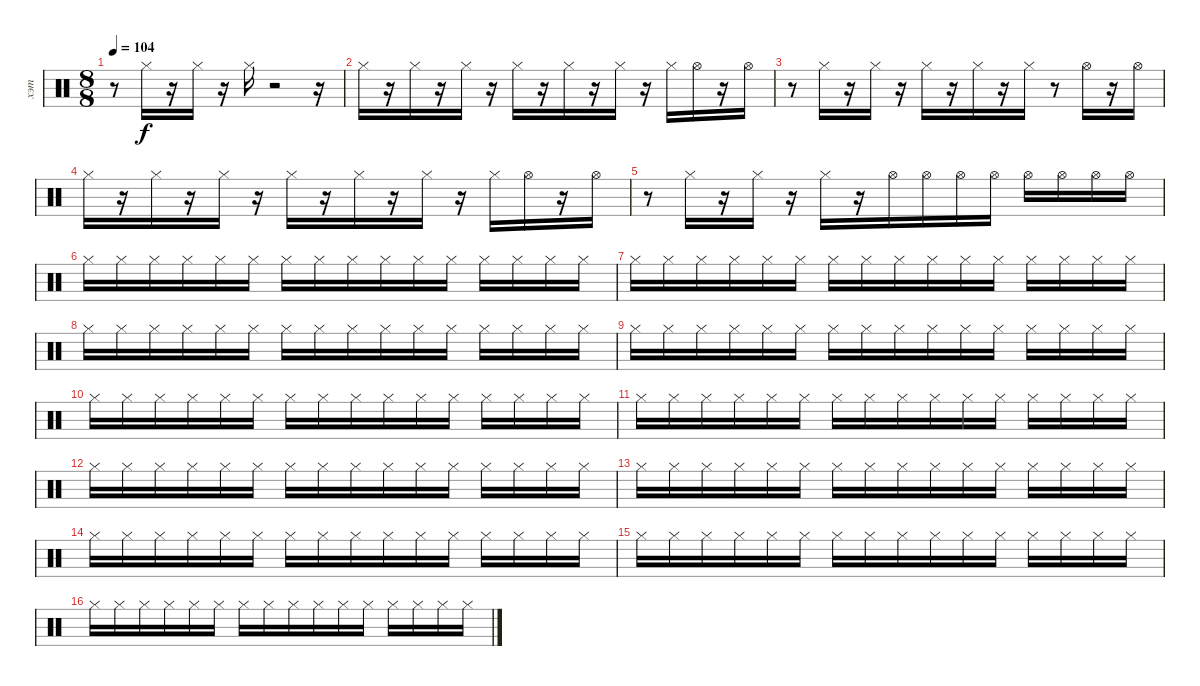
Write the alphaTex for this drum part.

\track ("хэт" "хэт") {instrument percussion}
\staff {score}
\articulation defaults
\ts (8 8)
\tempo 104
\clef neutral
\ks c
r.8{dy f} "Hi-Hat (closed)".16 r.16 "Hi-Hat (closed)".16 r.16 "Hi-Hat (closed)".16 r.2 r.16 |
"Hi-Hat (closed)".16 r.16 "Hi-Hat (closed)".16 r.16 "Hi-Hat (closed)".16 r.16 "Hi-Hat (closed)".16 r.16 "Hi-Hat (closed)".16 r.16 "Hi-Hat (closed)".16 r.16 "Hi-Hat (closed)".16 "Hi-Hat (open)".16 r.16 "Hi-Hat (open)".16 |
r.8 "Hi-Hat (closed)".16 r.16 "Hi-Hat (closed)".16 r.16 "Hi-Hat (closed)".16 r.16 "Hi-Hat (closed)".16 r.16 "Hi-Hat (closed)".16 r.8 "Hi-Hat (open)".16 r.16 "Hi-Hat (open)".16 |
"Hi-Hat (closed)".16 r.16 "Hi-Hat (closed)".16 r.16 "Hi-Hat (closed)".16 r.16 "Hi-Hat (closed)".16 r.16 "Hi-Hat (closed)".16 r.16 "Hi-Hat (closed)".16 r.16 "Hi-Hat (closed)".16 "Hi-Hat (open)".16 r.16 "Hi-Hat (open)".16 |
r.8 "Hi-Hat (closed)".16 r.16 "Hi-Hat (closed)".16 r.16 "Hi-Hat (closed)".16 r.16 "Hi-Hat (open)".16 "Hi-Hat (open)".16 "Hi-Hat (open)".16 "Hi-Hat (open)".16 "Hi-Hat (open)".16 "Hi-Hat (open)".16 "Hi-Hat (open)".16 "Hi-Hat (open)".16 |
"Hi-Hat (closed)".16 "Hi-Hat (closed)".16 "Hi-Hat (closed)".16 "Hi-Hat (closed)".16 "Hi-Hat (closed)".16 "Hi-Hat (closed)".16 "Hi-Hat (closed)".16 "Hi-Hat (closed)".16 "Hi-Hat (closed)".16 "Hi-Hat (closed)".16 "Hi-Hat (closed)".16 "Hi-Hat (closed)".16 "Hi-Hat (closed)".16 "Hi-Hat (closed)".16 "Hi-Hat (closed)".16 "Hi-Hat (closed)".16 |
"Hi-Hat (closed)".16 "Hi-Hat (closed)".16 "Hi-Hat (closed)".16 "Hi-Hat (closed)".16 "Hi-Hat (closed)".16 "Hi-Hat (closed)".16 "Hi-Hat (closed)".16 "Hi-Hat (closed)".16 "Hi-Hat (closed)".16 "Hi-Hat (closed)".16 "Hi-Hat (closed)".16 "Hi-Hat (closed)".16 "Hi-Hat (closed)".16 "Hi-Hat (closed)".16 "Hi-Hat (closed)".16 "Hi-Hat (closed)".16 |
"Hi-Hat (closed)".16 "Hi-Hat (closed)".16 "Hi-Hat (closed)".16 "Hi-Hat (closed)".16 "Hi-Hat (closed)".16 "Hi-Hat (closed)".16 "Hi-Hat (closed)".16 "Hi-Hat (closed)".16 "Hi-Hat (closed)".16 "Hi-Hat (closed)".16 "Hi-Hat (closed)".16 "Hi-Hat (closed)".16 "Hi-Hat (closed)".16 "Hi-Hat (closed)".16 "Hi-Hat (closed)".16 "Hi-Hat (closed)".16 |
"Hi-Hat (closed)".16 "Hi-Hat (closed)".16 "Hi-Hat (closed)".16 "Hi-Hat (closed)".16 "Hi-Hat (closed)".16 "Hi-Hat (closed)".16 "Hi-Hat (closed)".16 "Hi-Hat (closed)".16 "Hi-Hat (closed)".16 "Hi-Hat (closed)".16 "Hi-Hat (closed)".16 "Hi-Hat (closed)".16 "Hi-Hat (closed)".16 "Hi-Hat (closed)".16 "Hi-Hat (closed)".16 "Hi-Hat (closed)".16 |
"Hi-Hat (closed)".16 "Hi-Hat (closed)".16 "Hi-Hat (closed)".16 "Hi-Hat (closed)".16 "Hi-Hat (closed)".16 "Hi-Hat (closed)".16 "Hi-Hat (closed)".16 "Hi-Hat (closed)".16 "Hi-Hat (closed)".16 "Hi-Hat (closed)".16 "Hi-Hat (closed)".16 "Hi-Hat (closed)".16 "Hi-Hat (closed)".16 "Hi-Hat (closed)".16 "Hi-Hat (closed)".16 "Hi-Hat (closed)".16 |
"Hi-Hat (closed)".16 "Hi-Hat (closed)".16 "Hi-Hat (closed)".16 "Hi-Hat (closed)".16 "Hi-Hat (closed)".16 "Hi-Hat (closed)".16 "Hi-Hat (closed)".16 "Hi-Hat (closed)".16 "Hi-Hat (closed)".16 "Hi-Hat (closed)".16 "Hi-Hat (closed)".16 "Hi-Hat (closed)".16 "Hi-Hat (closed)".16 "Hi-Hat (closed)".16 "Hi-Hat (closed)".16 "Hi-Hat (closed)".16 |
"Hi-Hat (closed)".16 "Hi-Hat (closed)".16 "Hi-Hat (closed)".16 "Hi-Hat (closed)".16 "Hi-Hat (closed)".16 "Hi-Hat (closed)".16 "Hi-Hat (closed)".16 "Hi-Hat (closed)".16 "Hi-Hat (closed)".16 "Hi-Hat (closed)".16 "Hi-Hat (closed)".16 "Hi-Hat (closed)".16 "Hi-Hat (closed)".16 "Hi-Hat (closed)".16 "Hi-Hat (closed)".16 "Hi-Hat (closed)".16 |
"Hi-Hat (closed)".16 "Hi-Hat (closed)".16 "Hi-Hat (closed)".16 "Hi-Hat (closed)".16 "Hi-Hat (closed)".16 "Hi-Hat (closed)".16 "Hi-Hat (closed)".16 "Hi-Hat (closed)".16 "Hi-Hat (closed)".16 "Hi-Hat (closed)".16 "Hi-Hat (closed)".16 "Hi-Hat (closed)".16 "Hi-Hat (closed)".16 "Hi-Hat (closed)".16 "Hi-Hat (closed)".16 "Hi-Hat (closed)".16 |
"Hi-Hat (closed)".16 "Hi-Hat (closed)".16 "Hi-Hat (closed)".16 "Hi-Hat (closed)".16 "Hi-Hat (closed)".16 "Hi-Hat (closed)".16 "Hi-Hat (closed)".16 "Hi-Hat (closed)".16 "Hi-Hat (closed)".16 "Hi-Hat (closed)".16 "Hi-Hat (closed)".16 "Hi-Hat (closed)".16 "Hi-Hat (closed)".16 "Hi-Hat (closed)".16 "Hi-Hat (closed)".16 "Hi-Hat (closed)".16 |
"Hi-Hat (closed)".16 "Hi-Hat (closed)".16 "Hi-Hat (closed)".16 "Hi-Hat (closed)".16 "Hi-Hat (closed)".16 "Hi-Hat (closed)".16 "Hi-Hat (closed)".16 "Hi-Hat (closed)".16 "Hi-Hat (closed)".16 "Hi-Hat (closed)".16 "Hi-Hat (closed)".16 "Hi-Hat (closed)".16 "Hi-Hat (closed)".16 "Hi-Hat (closed)".16 "Hi-Hat (closed)".16 "Hi-Hat (closed)".16 |
"Hi-Hat (closed)".16 "Hi-Hat (closed)".16 "Hi-Hat (closed)".16 "Hi-Hat (closed)".16 "Hi-Hat (closed)".16 "Hi-Hat (closed)".16 "Hi-Hat (closed)".16 "Hi-Hat (closed)".16 "Hi-Hat (closed)".16 "Hi-Hat (closed)".16 "Hi-Hat (closed)".16 "Hi-Hat (closed)".16 "Hi-Hat (closed)".16 "Hi-Hat (closed)".16 "Hi-Hat (closed)".16 "Hi-Hat (closed)".16
